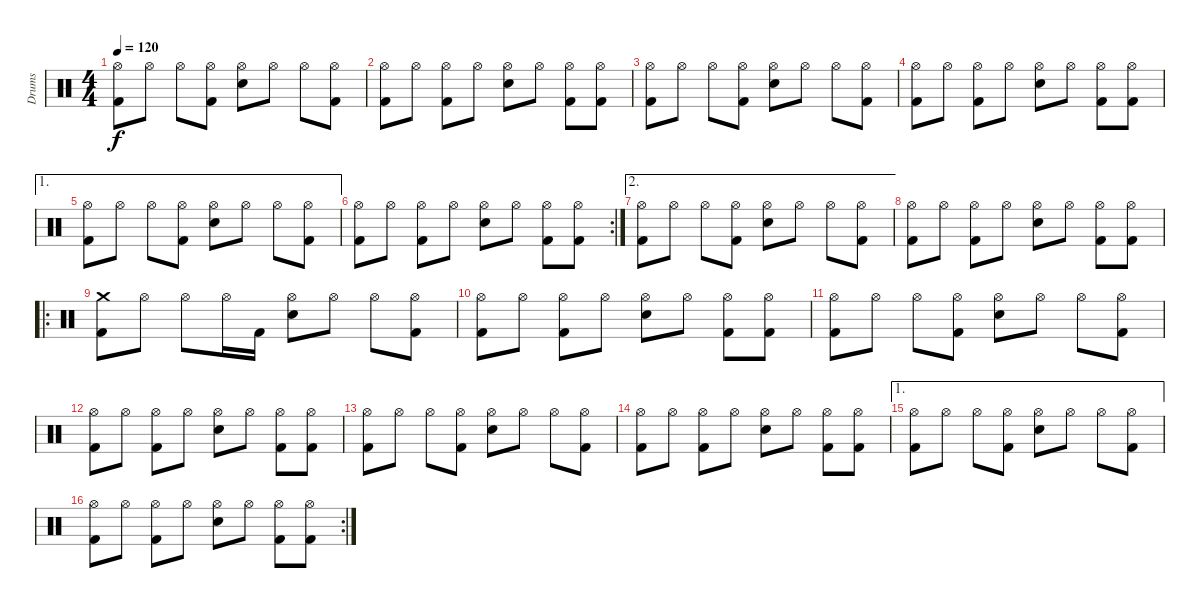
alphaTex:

\track ("Drums " "Drums ") {instrument percussion}
\staff {score}
\articulation defaults
\ts (4 4)
\tempo 120
\clef neutral
\ks c
("Hi-Hat (open)" "Kick (hit) 2").8{dy f} "Hi-Hat (open)".8 "Hi-Hat (open)".8 ("Hi-Hat (open)" "Kick (hit) 2").8 ("Hi-Hat (open)" "Snare (hit) 2").8 "Hi-Hat (open)".8 "Hi-Hat (open)".8 ("Hi-Hat (open)" "Kick (hit) 2").8 |
("Hi-Hat (open)" "Kick (hit) 2").8 "Hi-Hat (open)".8 ("Hi-Hat (open)" "Kick (hit) 2").8 "Hi-Hat (open)".8 ("Hi-Hat (open)" "Snare (hit) 2").8 "Hi-Hat (open)".8 ("Hi-Hat (open)" "Kick (hit) 2").8 ("Hi-Hat (open)" "Kick (hit) 2").8 |
("Hi-Hat (open)" "Kick (hit) 2").8 "Hi-Hat (open)".8 "Hi-Hat (open)".8 ("Hi-Hat (open)" "Kick (hit) 2").8 ("Hi-Hat (open)" "Snare (hit) 2").8 "Hi-Hat (open)".8 "Hi-Hat (open)".8 ("Hi-Hat (open)" "Kick (hit) 2").8 |
("Hi-Hat (open)" "Kick (hit) 2").8 "Hi-Hat (open)".8 ("Hi-Hat (open)" "Kick (hit) 2").8 "Hi-Hat (open)".8 ("Hi-Hat (open)" "Snare (hit) 2").8 "Hi-Hat (open)".8 ("Hi-Hat (open)" "Kick (hit) 2").8 ("Hi-Hat (open)" "Kick (hit) 2").8 |
\ae 1
("Hi-Hat (open)" "Kick (hit) 2").8 "Hi-Hat (open)".8 "Hi-Hat (open)".8 ("Hi-Hat (open)" "Kick (hit) 2").8 ("Hi-Hat (open)" "Snare (hit) 2").8 "Hi-Hat (open)".8 "Hi-Hat (open)".8 ("Hi-Hat (open)" "Kick (hit) 2").8 |
\rc 2
("Hi-Hat (open)" "Kick (hit) 2").8 "Hi-Hat (open)".8 ("Hi-Hat (open)" "Kick (hit) 2").8 "Hi-Hat (open)".8 ("Hi-Hat (open)" "Snare (hit) 2").8 "Hi-Hat (open)".8 ("Hi-Hat (open)" "Kick (hit) 2").8 ("Hi-Hat (open)" "Kick (hit) 2").8 |
\ae 2
("Hi-Hat (open)" "Kick (hit) 2").8 "Hi-Hat (open)".8 "Hi-Hat (open)".8 ("Hi-Hat (open)" "Kick (hit) 2").8 ("Hi-Hat (open)" "Snare (hit) 2").8 "Hi-Hat (open)".8 "Hi-Hat (open)".8 ("Hi-Hat (open)" "Kick (hit) 2").8 |
("Hi-Hat (open)" "Kick (hit) 2").8 "Hi-Hat (open)".8 ("Hi-Hat (open)" "Kick (hit) 2").8 "Hi-Hat (open)".8 ("Hi-Hat (open)" "Snare (hit) 2").8 "Hi-Hat (open)".8 ("Hi-Hat (open)" "Kick (hit) 2").8 ("Hi-Hat (open)" "Kick (hit) 2").8 |
\ro
("Crash medium (hit)" "Kick (hit) 2").8 "Hi-Hat (open)".8 "Hi-Hat (open)".8 "Hi-Hat (open)".16 "Kick (hit) 2".16 ("Hi-Hat (open)" "Snare (hit) 2").8 "Hi-Hat (open)".8 "Hi-Hat (open)".8 ("Hi-Hat (open)" "Kick (hit) 2").8 |
("Hi-Hat (open)" "Kick (hit) 2").8 "Hi-Hat (open)".8 ("Hi-Hat (open)" "Kick (hit) 2").8 "Hi-Hat (open)".8 ("Hi-Hat (open)" "Snare (hit) 2").8 "Hi-Hat (open)".8 ("Hi-Hat (open)" "Kick (hit) 2").8 ("Hi-Hat (open)" "Kick (hit) 2").8 |
("Hi-Hat (open)" "Kick (hit) 2").8 "Hi-Hat (open)".8 "Hi-Hat (open)".8 ("Hi-Hat (open)" "Kick (hit) 2").8 ("Hi-Hat (open)" "Snare (hit) 2").8 "Hi-Hat (open)".8 "Hi-Hat (open)".8 ("Hi-Hat (open)" "Kick (hit) 2").8 |
("Hi-Hat (open)" "Kick (hit) 2").8 "Hi-Hat (open)".8 ("Hi-Hat (open)" "Kick (hit) 2").8 "Hi-Hat (open)".8 ("Hi-Hat (open)" "Snare (hit) 2").8 "Hi-Hat (open)".8 ("Hi-Hat (open)" "Kick (hit) 2").8 ("Hi-Hat (open)" "Kick (hit) 2").8 |
("Hi-Hat (open)" "Kick (hit) 2").8 "Hi-Hat (open)".8 "Hi-Hat (open)".8 ("Hi-Hat (open)" "Kick (hit) 2").8 ("Hi-Hat (open)" "Snare (hit) 2").8 "Hi-Hat (open)".8 "Hi-Hat (open)".8 ("Hi-Hat (open)" "Kick (hit) 2").8 |
("Hi-Hat (open)" "Kick (hit) 2").8 "Hi-Hat (open)".8 ("Hi-Hat (open)" "Kick (hit) 2").8 "Hi-Hat (open)".8 ("Hi-Hat (open)" "Snare (hit) 2").8 "Hi-Hat (open)".8 ("Hi-Hat (open)" "Kick (hit) 2").8 ("Hi-Hat (open)" "Kick (hit) 2").8 |
\ae 1
("Hi-Hat (open)" "Kick (hit) 2").8 "Hi-Hat (open)".8 "Hi-Hat (open)".8 ("Hi-Hat (open)" "Kick (hit) 2").8 ("Hi-Hat (open)" "Snare (hit) 2").8 "Hi-Hat (open)".8 "Hi-Hat (open)".8 ("Hi-Hat (open)" "Kick (hit) 2").8 |
\rc 2
("Hi-Hat (open)" "Kick (hit) 2").8 "Hi-Hat (open)".8 ("Hi-Hat (open)" "Kick (hit) 2").8 "Hi-Hat (open)".8 ("Hi-Hat (open)" "Snare (hit) 2").8 "Hi-Hat (open)".8 ("Hi-Hat (open)" "Kick (hit) 2").8 ("Hi-Hat (open)" "Kick (hit) 2").8
